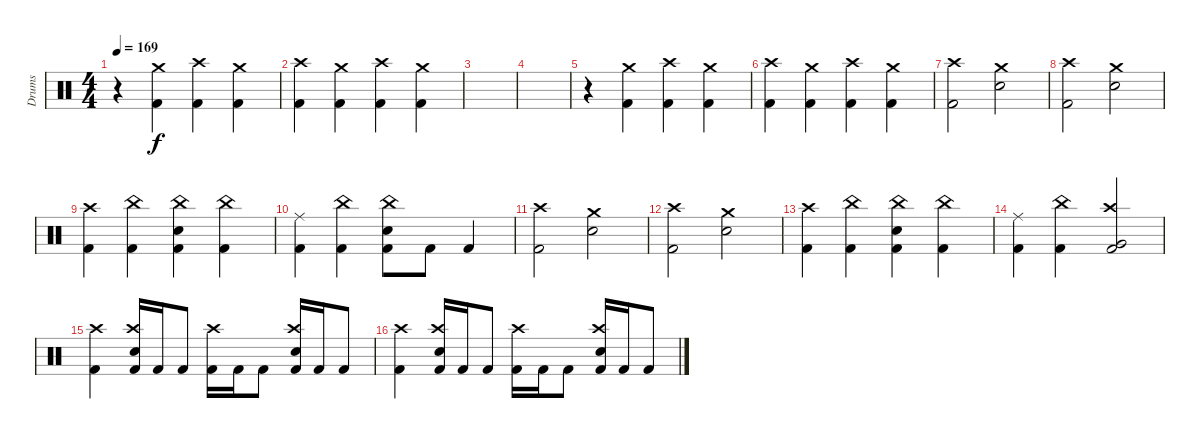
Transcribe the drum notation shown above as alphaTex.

\track ("Drums" "Drums") {instrument percussion}
\staff {score}
\articulation defaults
\ts (4 4)
\tempo 169
\clef neutral
\ks c
r.4{dy f} ("Crash medium (hit)" "Kick (hit) 2").4 ("Crash high (hit)" "Kick (hit) 2").4 ("Crash medium (hit)" "Kick (hit) 2").4 |
("Crash high (hit)" "Kick (hit) 2").4 ("Crash medium (hit)" "Kick (hit) 2").4 ("Crash high (hit)" "Kick (hit) 2").4 ("Crash medium (hit)" "Kick (hit) 2").4 |
|
|
r.4 ("Crash medium (hit)" "Kick (hit) 2").4 ("Crash high (hit)" "Kick (hit) 2").4 ("Crash medium (hit)" "Kick (hit) 2").4 |
("Crash high (hit)" "Kick (hit) 2").4 ("Crash medium (hit)" "Kick (hit) 2").4 ("Crash high (hit)" "Kick (hit) 2").4 ("Crash medium (hit)" "Kick (hit) 2").4 |
("Crash high (hit)" "Kick (hit) 2").2 ("Crash medium (hit)" "Electric Snare (hit)").2 |
("Crash high (hit)" "Kick (hit) 2").2 ("Crash medium (hit)" "Electric Snare (hit)").2 |
("Crash high (hit)" "Kick (hit) 2").4 ("China (hit)" "Kick (hit) 2").4 ("China (hit)" "Electric Snare (hit)" "Kick (hit) 2").4 ("China (hit)" "Kick (hit) 2").4 |
("Ride (middle)" "Kick (hit) 2").4 ("China (hit)" "Kick (hit) 2").4 ("China (hit)" "Electric Snare (hit)" "Kick (hit) 2").8 "Kick (hit) 2".8 "Kick (hit) 2".4 |
("Crash high (hit)" "Kick (hit) 2").2 ("Crash medium (hit)" "Electric Snare (hit)").2 |
("Crash high (hit)" "Kick (hit) 2").2 ("Crash medium (hit)" "Electric Snare (hit)").2 |
("Crash high (hit)" "Kick (hit) 2").4 ("China (hit)" "Kick (hit) 2").4 ("China (hit)" "Electric Snare (hit)" "Kick (hit) 2").4 ("China (hit)" "Kick (hit) 2").4 |
("Ride (middle)" "Kick (hit) 2").4 ("China (hit)" "Kick (hit) 2").4 ("Crash high (hit)" "Very Low Tom (hit)" "Kick (hit) 2").2 |
("Crash high (hit)" "Kick (hit) 2").4 ("Crash high (hit)" "Electric Snare (hit)" "Kick (hit) 2").16 "Kick (hit) 2".16 "Kick (hit) 2".8 ("Crash high (hit)" "Kick (hit) 2").16 "Kick (hit) 2".16 "Kick (hit) 2".8 ("Crash high (hit)" "Electric Snare (hit)" "Kick (hit) 2").16 "Kick (hit) 2".16 "Kick (hit) 2".8 |
("Crash high (hit)" "Kick (hit) 2").4 ("Crash high (hit)" "Electric Snare (hit)" "Kick (hit) 2").16 "Kick (hit) 2".16 "Kick (hit) 2".8 ("Crash high (hit)" "Kick (hit) 2").16 "Kick (hit) 2".16 "Kick (hit) 2".8 ("Crash high (hit)" "Electric Snare (hit)" "Kick (hit) 2").16 "Kick (hit) 2".16 "Kick (hit) 2".8
